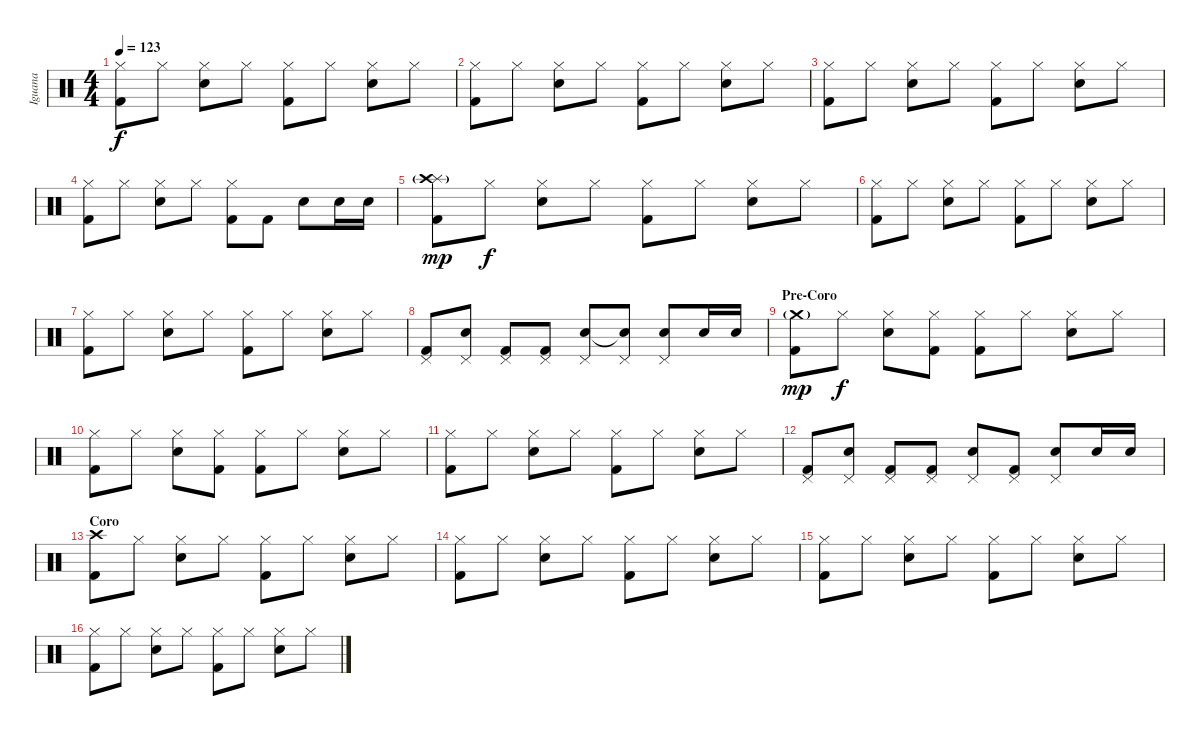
\track ("Iguana" "Iguana") {instrument percussion}
\staff {score}
\articulation defaults
\ts (4 4)
\tempo 123
\clef neutral
\ks c
("Hi-Hat (closed)" "Kick (hit) 2").8{dy f} "Hi-Hat (closed)".8 ("Hi-Hat (closed)" "Snare (hit) 2").8 "Hi-Hat (closed)".8 ("Hi-Hat (closed)" "Kick (hit) 2").8 "Hi-Hat (closed)".8 ("Hi-Hat (closed)" "Snare (hit) 2").8 "Hi-Hat (closed)".8 |
("Hi-Hat (closed)" "Kick (hit) 2").8 "Hi-Hat (closed)".8 ("Hi-Hat (closed)" "Snare (hit) 2").8 "Hi-Hat (closed)".8 ("Hi-Hat (closed)" "Kick (hit) 2").8 "Hi-Hat (closed)".8 ("Hi-Hat (closed)" "Snare (hit) 2").8 "Hi-Hat (closed)".8 |
("Hi-Hat (closed)" "Kick (hit) 2").8 "Hi-Hat (closed)".8 ("Hi-Hat (closed)" "Snare (hit) 2").8 "Hi-Hat (closed)".8 ("Hi-Hat (closed)" "Kick (hit) 2").8 "Hi-Hat (closed)".8 ("Hi-Hat (closed)" "Snare (hit) 2").8 "Hi-Hat (closed)".8 |
("Hi-Hat (closed)" "Kick (hit) 2").8 "Hi-Hat (closed)".8 ("Hi-Hat (closed)" "Snare (hit) 2").8 "Hi-Hat (closed)".8 ("Hi-Hat (closed)" "Kick (hit) 2").8 "Kick (hit) 2".8 "Snare (hit) 2".8 "Snare (hit) 2".16 "Snare (hit) 2".16 |
("Splash (hit)" "Crash high (hit)"{g} "Kick (hit) 2").8{dy mp} "Hi-Hat (closed)".8{dy f} ("Hi-Hat (closed)" "Snare (hit) 2").8 "Hi-Hat (closed)".8 ("Hi-Hat (closed)" "Kick (hit) 2").8 "Hi-Hat (closed)".8 ("Hi-Hat (closed)" "Snare (hit) 2").8 "Hi-Hat (closed)".8 |
("Hi-Hat (closed)" "Kick (hit) 2").8 "Hi-Hat (closed)".8 ("Hi-Hat (closed)" "Snare (hit) 2").8 "Hi-Hat (closed)".8 ("Hi-Hat (closed)" "Kick (hit) 2").8 "Hi-Hat (closed)".8 ("Hi-Hat (closed)" "Snare (hit) 2").8 "Hi-Hat (closed)".8 |
("Hi-Hat (closed)" "Kick (hit) 2").8 "Hi-Hat (closed)".8 ("Hi-Hat (closed)" "Snare (hit) 2").8 "Hi-Hat (closed)".8 ("Hi-Hat (closed)" "Kick (hit) 2").8 "Hi-Hat (closed)".8 ("Hi-Hat (closed)" "Snare (hit) 2").8 "Hi-Hat (closed)".8 |
("Pedal Hi-Hat (hit)" "Kick (hit) 2").8 ("Pedal Hi-Hat (hit)" "Snare (hit) 2").8 ("Pedal Hi-Hat (hit)" "Kick (hit) 2").8 ("Pedal Hi-Hat (hit)" "Kick (hit) 2").8 ("Pedal Hi-Hat (hit)" "Snare (hit) 2").8 ("Pedal Hi-Hat (hit)" "Snare (hit) 2"{t}).8 ("Pedal Hi-Hat (hit)" "Snare (hit) 2").8 "Snare (hit) 2".16 "Snare (hit) 2".16 |
\section ("" "Pre-Coro")
("Crash medium (hit)"{g} "Kick (hit) 2").8{dy mp volume 12} "Hi-Hat (closed)".8{dy f} ("Hi-Hat (closed)" "Snare (hit) 2").8 ("Hi-Hat (closed)" "Kick (hit) 2").8 ("Hi-Hat (closed)" "Kick (hit) 2").8 "Hi-Hat (closed)".8 ("Hi-Hat (closed)" "Snare (hit) 2").8 "Hi-Hat (closed)".8 |
("Hi-Hat (closed)" "Kick (hit) 2").8 "Hi-Hat (closed)".8 ("Hi-Hat (closed)" "Snare (hit) 2").8 ("Hi-Hat (closed)" "Kick (hit) 2").8 ("Hi-Hat (closed)" "Kick (hit) 2").8 "Hi-Hat (closed)".8 ("Hi-Hat (closed)" "Snare (hit) 2").8 "Hi-Hat (closed)".8 |
("Hi-Hat (closed)" "Kick (hit) 2").8 "Hi-Hat (closed)".8 ("Hi-Hat (closed)" "Snare (hit) 2").8 "Hi-Hat (closed)".8 ("Hi-Hat (closed)" "Kick (hit) 2").8 "Hi-Hat (closed)".8 ("Hi-Hat (closed)" "Snare (hit) 2").8 "Hi-Hat (closed)".8 |
("Pedal Hi-Hat (hit)" "Kick (hit) 2").8 ("Pedal Hi-Hat (hit)" "Snare (hit) 2").8 ("Pedal Hi-Hat (hit)" "Kick (hit) 2").8 ("Pedal Hi-Hat (hit)" "Kick (hit) 2").8 ("Pedal Hi-Hat (hit)" "Snare (hit) 2").8 ("Pedal Hi-Hat (hit)" "Kick (hit) 2").8 ("Pedal Hi-Hat (hit)" "Snare (hit) 2").8 "Snare (hit) 2".16 "Snare (hit) 2".16 |
\section ("" "Coro")
("Crash high (hit)" "Kick (hit) 2").8 "Hi-Hat (closed)".8 ("Hi-Hat (closed)" "Snare (hit) 2").8 "Hi-Hat (closed)".8 ("Hi-Hat (closed)" "Kick (hit) 2").8 "Hi-Hat (closed)".8 ("Hi-Hat (closed)" "Snare (hit) 2").8 "Hi-Hat (closed)".8 |
("Hi-Hat (closed)" "Kick (hit) 2").8 "Hi-Hat (closed)".8 ("Hi-Hat (closed)" "Snare (hit) 2").8 "Hi-Hat (closed)".8 ("Hi-Hat (closed)" "Kick (hit) 2").8 "Hi-Hat (closed)".8 ("Hi-Hat (closed)" "Snare (hit) 2").8 "Hi-Hat (closed)".8 |
("Hi-Hat (closed)" "Kick (hit) 2").8 "Hi-Hat (closed)".8 ("Hi-Hat (closed)" "Snare (hit) 2").8 "Hi-Hat (closed)".8 ("Hi-Hat (closed)" "Kick (hit) 2").8 "Hi-Hat (closed)".8 ("Hi-Hat (closed)" "Snare (hit) 2").8 "Hi-Hat (closed)".8 |
("Hi-Hat (closed)" "Kick (hit) 2").8 "Hi-Hat (closed)".8 ("Hi-Hat (closed)" "Snare (hit) 2").8 "Hi-Hat (closed)".8 ("Hi-Hat (closed)" "Kick (hit) 2").8 "Hi-Hat (closed)".8 ("Hi-Hat (closed)" "Snare (hit) 2").8 "Hi-Hat (closed)".8
